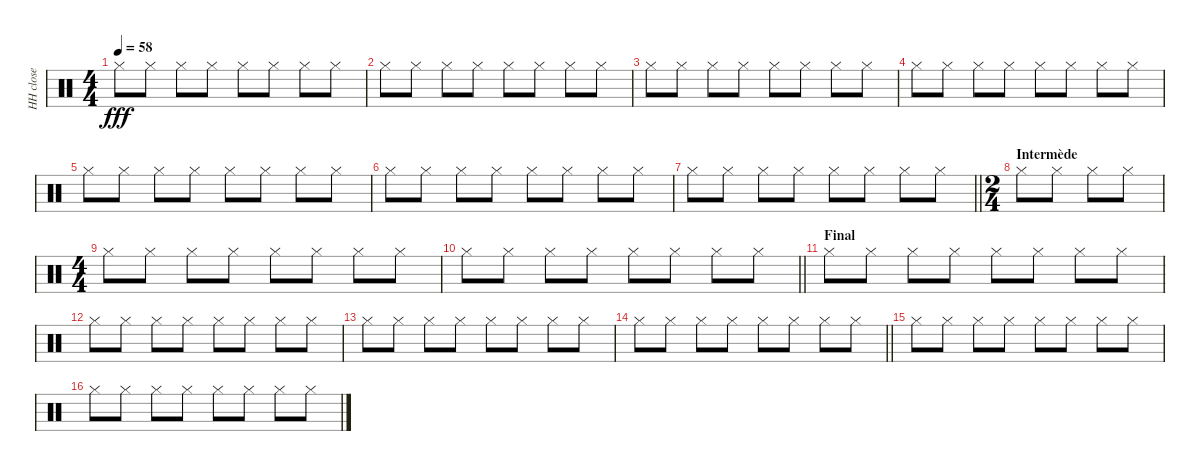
\track ("HH close" "HH close") {instrument percussion}
\staff {score}
\articulation defaults
\ts (4 4)
\tempo 58
\clef neutral
\ks c "Hi-Hat (closed)".8{dy fff} "Hi-Hat (closed)".8 "Hi-Hat (closed)".8 "Hi-Hat (closed)".8 "Hi-Hat (closed)".8 "Hi-Hat (closed)".8 "Hi-Hat (closed)".8 "Hi-Hat (closed)".8
|
"Hi-Hat (closed)".8 "Hi-Hat (closed)".8 "Hi-Hat (closed)".8 "Hi-Hat (closed)".8 "Hi-Hat (closed)".8 "Hi-Hat (closed)".8 "Hi-Hat (closed)".8 "Hi-Hat (closed)".8 |
"Hi-Hat (closed)".8 "Hi-Hat (closed)".8 "Hi-Hat (closed)".8 "Hi-Hat (closed)".8 "Hi-Hat (closed)".8 "Hi-Hat (closed)".8 "Hi-Hat (closed)".8 "Hi-Hat (closed)".8 |
"Hi-Hat (closed)".8 "Hi-Hat (closed)".8 "Hi-Hat (closed)".8 "Hi-Hat (closed)".8 "Hi-Hat (closed)".8 "Hi-Hat (closed)".8 "Hi-Hat (closed)".8 "Hi-Hat (closed)".8 |
"Hi-Hat (closed)".8 "Hi-Hat (closed)".8 "Hi-Hat (closed)".8 "Hi-Hat (closed)".8 "Hi-Hat (closed)".8 "Hi-Hat (closed)".8 "Hi-Hat (closed)".8 "Hi-Hat (closed)".8 |
"Hi-Hat (closed)".8 "Hi-Hat (closed)".8 "Hi-Hat (closed)".8 "Hi-Hat (closed)".8 "Hi-Hat (closed)".8 "Hi-Hat (closed)".8 "Hi-Hat (closed)".8 "Hi-Hat (closed)".8 |
\barLineRight lightlight "Hi-Hat (closed)".8 "Hi-Hat (closed)".8 "Hi-Hat (closed)".8 "Hi-Hat (closed)".8 "Hi-Hat (closed)".8 "Hi-Hat (closed)".8 "Hi-Hat (closed)".8 "Hi-Hat (closed)".8
|
\ts (2 4)
\section ("" "Intermède")
"Hi-Hat (closed)".8 "Hi-Hat (closed)".8 "Hi-Hat (closed)".8 "Hi-Hat (closed)".8 |
\ts (4 4)
"Hi-Hat (closed)".8 "Hi-Hat (closed)".8 "Hi-Hat (closed)".8 "Hi-Hat (closed)".8 "Hi-Hat (closed)".8 "Hi-Hat (closed)".8 "Hi-Hat (closed)".8 "Hi-Hat (closed)".8 |
\barLineRight lightlight "Hi-Hat (closed)".8 "Hi-Hat (closed)".8 "Hi-Hat (closed)".8 "Hi-Hat (closed)".8 "Hi-Hat (closed)".8 "Hi-Hat (closed)".8 "Hi-Hat (closed)".8 "Hi-Hat (closed)".8
|
\section ("" "Final")
"Hi-Hat (closed)".8 "Hi-Hat (closed)".8 "Hi-Hat (closed)".8 "Hi-Hat (closed)".8 "Hi-Hat (closed)".8 "Hi-Hat (closed)".8 "Hi-Hat (closed)".8 "Hi-Hat (closed)".8 |
"Hi-Hat (closed)".8 "Hi-Hat (closed)".8 "Hi-Hat (closed)".8 "Hi-Hat (closed)".8 "Hi-Hat (closed)".8 "Hi-Hat (closed)".8 "Hi-Hat (closed)".8 "Hi-Hat (closed)".8 |
"Hi-Hat (closed)".8 "Hi-Hat (closed)".8 "Hi-Hat (closed)".8 "Hi-Hat (closed)".8 "Hi-Hat (closed)".8 "Hi-Hat (closed)".8 "Hi-Hat (closed)".8 "Hi-Hat (closed)".8 |
\barLineRight lightlight "Hi-Hat (closed)".8 "Hi-Hat (closed)".8 "Hi-Hat (closed)".8 "Hi-Hat (closed)".8 "Hi-Hat (closed)".8 "Hi-Hat (closed)".8 "Hi-Hat (closed)".8 "Hi-Hat (closed)".8
|
"Hi-Hat (closed)".8 "Hi-Hat (closed)".8 "Hi-Hat (closed)".8 "Hi-Hat (closed)".8 "Hi-Hat (closed)".8 "Hi-Hat (closed)".8 "Hi-Hat (closed)".8 "Hi-Hat (closed)".8 |
"Hi-Hat (closed)".8 "Hi-Hat (closed)".8 "Hi-Hat (closed)".8 "Hi-Hat (closed)".8 "Hi-Hat (closed)".8 "Hi-Hat (closed)".8 "Hi-Hat (closed)".8 "Hi-Hat (closed)".8
